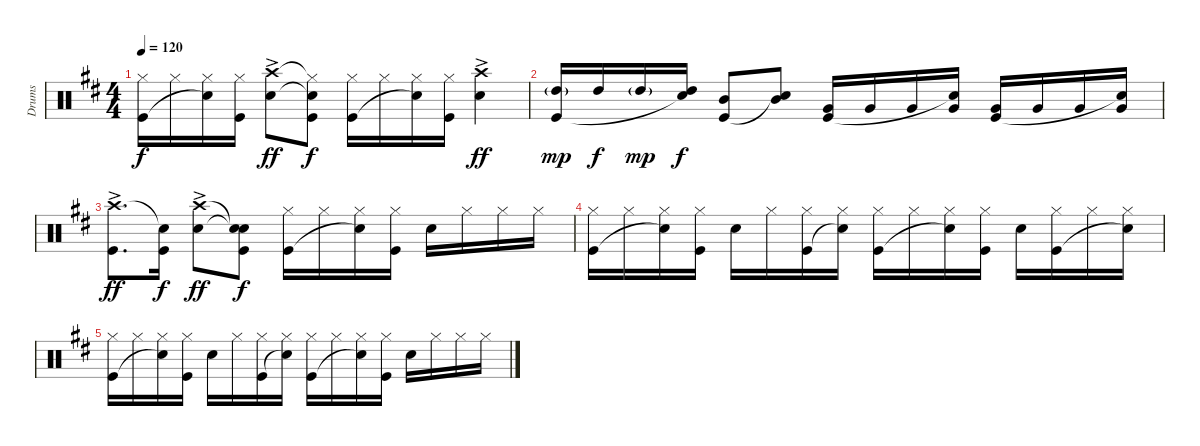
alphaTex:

\track ("Drums" "Drums") {instrument percussion}
\staff {score}
\articulation defaults
\ts (4 4)
\tempo 120
\clef neutral
\ks d
("Hi-Hat (closed)" "Kick (hit)").16{dy f} "Hi-Hat (closed)".16 ("Hi-Hat (closed)" "Snare (hit)"{t}).16 ("Hi-Hat (closed)" "Kick (hit)").16 ("Crash high (hit)"{ac} "Snare (hit) 2").8{dy ff} ("Hi-Hat (closed)"{t} "Snare (hit)"{t} "Kick (hit)").8{dy f} ("Hi-Hat (closed)" "Kick (hit)").16 "Hi-Hat (closed)".16 ("Hi-Hat (closed)" "Snare (hit)"{t}).16 ("Hi-Hat (closed)" "Kick (hit)").16 ("Crash high (hit)"{ac} "Snare (hit) 2").4{dy ff} |
("High Tom (hit)"{g} "Kick (hit)").16{dy mp} "High Tom (hit)".16{dy f} "High Tom (hit)"{g}.16{dy mp} ("High Tom (hit)" "Snare (hit)"{t}).16{dy f} ("Mid Tom (hit)" "Kick (hit)").8 ("Mid Tom (hit)" "Snare (hit)"{t}).8 ("Very Low Tom (hit)" "Kick (hit)").16 "Very Low Tom (hit)".16 "Very Low Tom (hit)".16 ("Very Low Tom (hit)" "Snare (hit)"{t}).16 ("Very Low Tom (hit)" "Kick (hit)").16 "Very Low Tom (hit)".16 "Very Low Tom (hit)".16 ("Very Low Tom (hit)" "Snare (hit)"{t}).16 |
("Crash high (hit)"{ac} "Kick (hit)").8{d dy ff} ("Snare (hit)"{t} "Kick (hit)").16{dy f} ("Crash high (hit)"{ac} "Snare (hit) 2").8{dy ff} ("Snare (hit)"{t} "Snare (hit)"{t} "Kick (hit)").8{dy f} ("Hi-Hat (closed)" "Kick (hit)").16 "Hi-Hat (closed)".16 ("Hi-Hat (closed)" "Snare (hit)"{t}).16 ("Hi-Hat (closed)" "Kick (hit)").16 "Snare (hit) 2".16 "Hi-Hat (closed)".16 "Hi-Hat (closed)".16 "Hi-Hat (closed)".16 |
("Hi-Hat (closed)" "Kick (hit)").16 "Hi-Hat (closed)".16 ("Hi-Hat (closed)" "Snare (hit)"{t}).16 ("Hi-Hat (closed)" "Kick (hit)").16 "Snare (hit) 2".16 "Hi-Hat (closed)".16 ("Hi-Hat (closed)" "Kick (hit)").16 ("Hi-Hat (closed)" "Snare (hit)"{t}).16 ("Hi-Hat (closed)" "Kick (hit)").16 "Hi-Hat (closed)".16 ("Hi-Hat (closed)" "Snare (hit)"{t}).16 ("Hi-Hat (closed)" "Kick (hit)").16 "Snare (hit) 2".16 ("Hi-Hat (closed)" "Kick (hit)").16 "Hi-Hat (closed)".16 ("Hi-Hat (closed)" "Snare (hit)"{t}).16 |
("Hi-Hat (closed)" "Kick (hit)").16 "Hi-Hat (closed)".16 ("Hi-Hat (closed)" "Snare (hit)"{t}).16 ("Hi-Hat (closed)" "Kick (hit)").16 "Snare (hit) 2".16 "Hi-Hat (closed)".16 ("Hi-Hat (closed)" "Kick (hit)").16 ("Hi-Hat (closed)" "Snare (hit)"{t}).16 ("Hi-Hat (closed)" "Kick (hit)").16 "Hi-Hat (closed)".16 ("Hi-Hat (closed)" "Snare (hit)"{t}).16 ("Hi-Hat (closed)" "Kick (hit)").16 "Snare (hit) 2".16 "Hi-Hat (closed)".16 "Hi-Hat (closed)".16 "Hi-Hat (closed)".16
